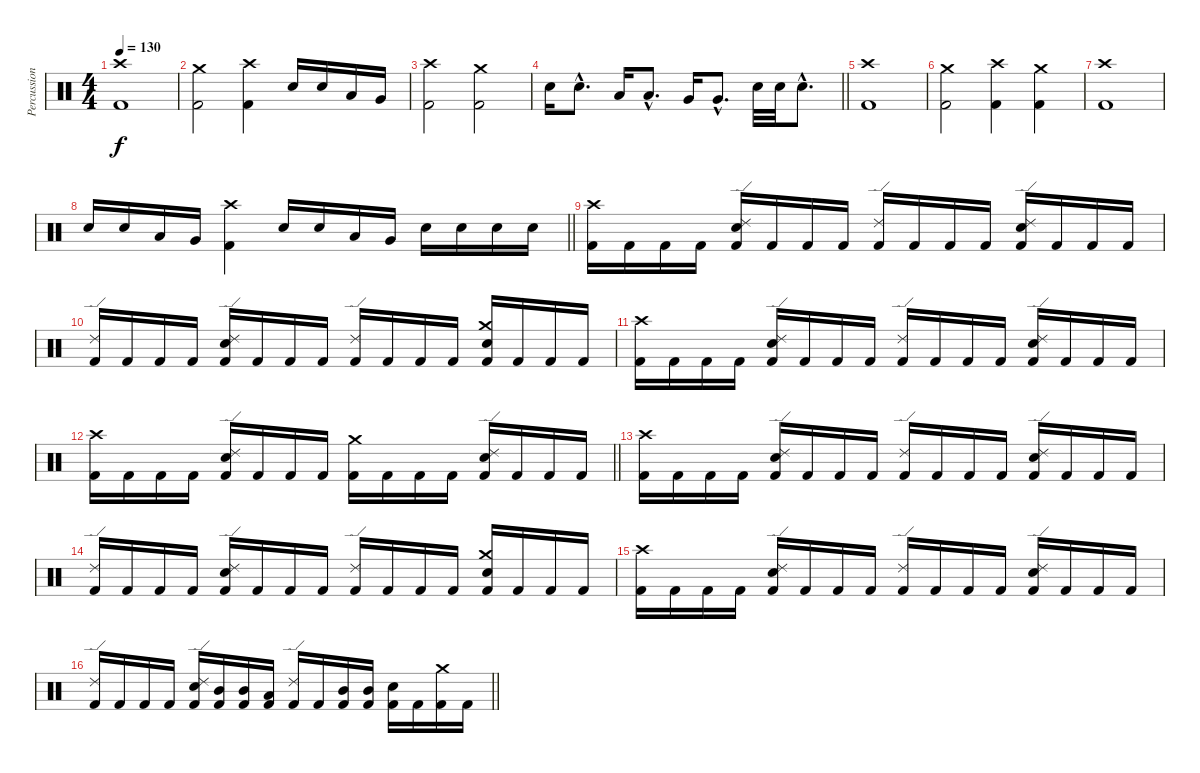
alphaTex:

\track ("Percussion" "Percussion") {instrument percussion}
\staff {score}
\articulation defaults
\ts (4 4)
\tempo 130
\clef neutral
\ks c
("Crash high (hit)" "Kick (hit) 2").1{dy f} |
("Crash medium (hit)" "Kick (hit) 2").2 ("Crash high (hit)" "Kick (hit) 2").4 "Electric Snare (hit)".16 "Electric Snare (hit)".16 "Low Tom (hit)".16 "Very Low Tom (hit)".16 |
("Crash high (hit)" "Kick (hit) 2").2 ("Crash medium (hit)" "Kick (hit) 2").2 |
\barLineRight lightlight "Electric Snare (hit)".16 "Electric Snare (hit)"{hac}.8{d} "Low Tom (hit)".16 "Low Tom (hit)"{hac}.8{d} "Very Low Tom (hit)".16 "Very Low Tom (hit)"{hac}.8{d} "Electric Snare (hit)".32 "Electric Snare (hit)".32 "Electric Snare (hit)"{hac}.8{d}
|
("Crash high (hit)" "Kick (hit) 2").1 |
("Crash medium (hit)" "Kick (hit) 2").2 ("Crash high (hit)" "Kick (hit) 2").4 ("Crash medium (hit)" "Kick (hit) 2").4 |
("Crash high (hit)" "Kick (hit) 2").1 |
\barLineRight lightlight "Electric Snare (hit)".16 "Electric Snare (hit)".16 "Low Tom (hit)".16 "Very Low Tom (hit)".16
("Crash high (hit)" "Kick (hit) 2").4 "Electric Snare (hit)".16 "Electric Snare (hit)".16 "Low Tom (hit)".16 "Very Low Tom (hit)".16 "Electric Snare (hit)".16 "Electric Snare (hit)".16 "Electric Snare (hit)".16 "Electric Snare (hit)".16 |
("Crash high (hit)" "Kick (hit) 2").16 "Kick (hit) 2".16 "Kick (hit) 2".16 "Kick (hit) 2".16 ("Ride (edge) 2" "Electric Snare (hit)" "Kick (hit) 2").16 "Kick (hit) 2".16 "Kick (hit) 2".16 "Kick (hit) 2".16 ("Ride (edge) 2" "Kick (hit) 2").16 "Kick (hit) 2".16 "Kick (hit) 2".16 "Kick (hit) 2".16 ("Ride (edge) 2" "Electric Snare (hit)" "Kick (hit) 2").16 "Kick (hit) 2".16 "Kick (hit) 2".16 "Kick (hit) 2".16 |
("Ride (edge) 2" "Kick (hit) 2").16 "Kick (hit) 2".16 "Kick (hit) 2".16 "Kick (hit) 2".16 ("Ride (edge) 2" "Electric Snare (hit)" "Kick (hit) 2").16 "Kick (hit) 2".16 "Kick (hit) 2".16 "Kick (hit) 2".16 ("Ride (edge) 2" "Kick (hit) 2").16 "Kick (hit) 2".16 "Kick (hit) 2".16 "Kick (hit) 2".16 ("Crash medium (hit)" "Electric Snare (hit)" "Kick (hit) 2").16 "Kick (hit) 2".16 "Kick (hit) 2".16 "Kick (hit) 2".16 |
("Crash high (hit)" "Kick (hit) 2").16 "Kick (hit) 2".16 "Kick (hit) 2".16 "Kick (hit) 2".16 ("Ride (edge) 2" "Electric Snare (hit)" "Kick (hit) 2").16 "Kick (hit) 2".16 "Kick (hit) 2".16 "Kick (hit) 2".16 ("Ride (edge) 2" "Kick (hit) 2").16 "Kick (hit) 2".16 "Kick (hit) 2".16 "Kick (hit) 2".16 ("Ride (edge) 2" "Electric Snare (hit)" "Kick (hit) 2").16 "Kick (hit) 2".16 "Kick (hit) 2".16 "Kick (hit) 2".16 |
\barLineRight lightlight
("Crash high (hit)" "Kick (hit) 2").16 "Kick (hit) 2".16 "Kick (hit) 2".16 "Kick (hit) 2".16 ("Ride (edge) 2" "Electric Snare (hit)" "Kick (hit) 2").16 "Kick (hit) 2".16 "Kick (hit) 2".16 "Kick (hit) 2".16 ("Crash medium (hit)" "Kick (hit) 2").16 "Kick (hit) 2".16 "Kick (hit) 2".16 "Kick (hit) 2".16 ("Ride (edge) 2" "Electric Snare (hit)" "Kick (hit) 2").16 "Kick (hit) 2".16 "Kick (hit) 2".16 "Kick (hit) 2".16 |
("Crash high (hit)" "Kick (hit) 2").16 "Kick (hit) 2".16 "Kick (hit) 2".16 "Kick (hit) 2".16 ("Ride (edge) 2" "Electric Snare (hit)" "Kick (hit) 2").16 "Kick (hit) 2".16 "Kick (hit) 2".16 "Kick (hit) 2".16 ("Ride (edge) 2" "Kick (hit) 2").16 "Kick (hit) 2".16 "Kick (hit) 2".16 "Kick (hit) 2".16 ("Ride (edge) 2" "Electric Snare (hit)" "Kick (hit) 2").16 "Kick (hit) 2".16 "Kick (hit) 2".16 "Kick (hit) 2".16 |
("Ride (edge) 2" "Kick (hit) 2").16 "Kick (hit) 2".16 "Kick (hit) 2".16 "Kick (hit) 2".16 ("Ride (edge) 2" "Electric Snare (hit)" "Kick (hit) 2").16 "Kick (hit) 2".16 "Kick (hit) 2".16 "Kick (hit) 2".16 ("Ride (edge) 2" "Kick (hit) 2").16 "Kick (hit) 2".16 "Kick (hit) 2".16 "Kick (hit) 2".16 ("Crash medium (hit)" "Electric Snare (hit)" "Kick (hit) 2").16 "Kick (hit) 2".16 "Kick (hit) 2".16 "Kick (hit) 2".16 |
("Crash high (hit)" "Kick (hit) 2").16 "Kick (hit) 2".16 "Kick (hit) 2".16 "Kick (hit) 2".16 ("Ride (edge) 2" "Electric Snare (hit)" "Kick (hit) 2").16 "Kick (hit) 2".16 "Kick (hit) 2".16 "Kick (hit) 2".16 ("Ride (edge) 2" "Kick (hit) 2").16 "Kick (hit) 2".16 "Kick (hit) 2".16 "Kick (hit) 2".16 ("Ride (edge) 2" "Electric Snare (hit)" "Kick (hit) 2").16 "Kick (hit) 2".16 "Kick (hit) 2".16 "Kick (hit) 2".16 |
\barLineRight lightlight
("Ride (edge) 2" "Kick (hit) 2").16 "Kick (hit) 2".16 "Kick (hit) 2".16 "Kick (hit) 2".16 ("Ride (edge) 2" "Electric Snare (hit)" "Kick (hit) 2").16 ("Mid Tom (hit)" "Kick (hit) 2").16 ("Mid Tom (hit)" "Kick (hit) 2").16 ("Low Tom (hit)" "Kick (hit) 2").16 ("Ride (edge) 2" "Kick (hit) 2").16 "Kick (hit) 2".16 ("Mid Tom (hit)" "Kick (hit) 2").16 ("Mid Tom (hit)" "Kick (hit) 2").16 ("Electric Snare (hit)" "Kick (hit) 2").16 "Kick (hit) 2".16 ("Crash medium (hit)" "Kick (hit) 2").16 "Kick (hit) 2".16
